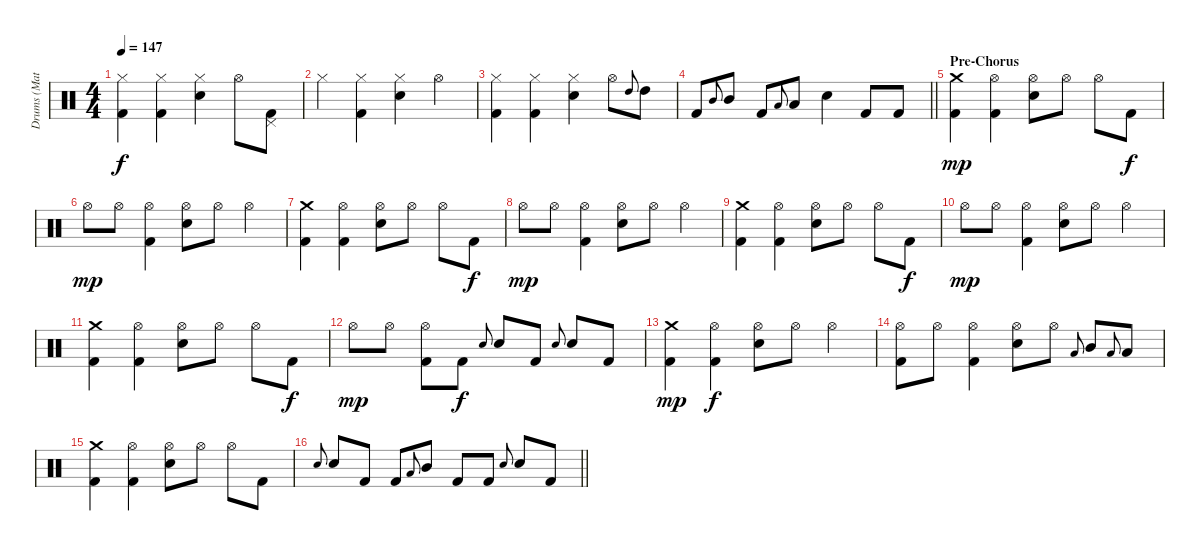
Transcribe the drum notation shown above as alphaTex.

\track ("Drums (Matt Laug)" "Drums (Mat") {instrument percussion}
\staff {score}
\articulation defaults
\ts (4 4)
\tempo 147
\clef neutral
\ks c
("Hi-Hat (closed)" "Kick (hit) 2").4{dy f} ("Hi-Hat (closed)" "Kick (hit) 2").4 ("Hi-Hat (closed)" "Electric Snare (hit)").4 "Hi-Hat (open)".8 ("Pedal Hi-Hat (hit)" "Kick (hit) 2").8 |
"Hi-Hat (closed)".4 ("Hi-Hat (closed)" "Kick (hit) 2").4 ("Hi-Hat (closed)" "Electric Snare (hit)").4 "Hi-Hat (open)".4 |
("Hi-Hat (closed)" "Kick (hit) 2").4 ("Hi-Hat (closed)" "Kick (hit) 2").4 ("Hi-Hat (closed)" "Electric Snare (hit)").4 "Hi-Hat (open)".8 "High Tom (hit)".8{gr onbeat} "High Tom (hit)".8 |
\barLineRight lightlight "Kick (hit) 2".8 "Mid Tom (hit)".8{gr onbeat} "Mid Tom (hit)".8 "Kick (hit) 2".8 "Low Tom (hit)".8{gr onbeat} "Low Tom (hit)".8 "Electric Snare (hit)".4 "Kick (hit) 2".8 "Kick (hit) 2".8
|
\section ("" "Pre-Chorus")
("Crash medium (hit)" "Kick (hit) 2").4{dy mp} ("Hi-Hat (open)" "Kick (hit) 2").4 ("Hi-Hat (open)" "Electric Snare (hit)").8 "Hi-Hat (open)".8 "Hi-Hat (open)".8 "Kick (hit) 2".8{dy f} |
"Hi-Hat (open)".8{dy mp} "Hi-Hat (open)".8 ("Hi-Hat (open)" "Kick (hit) 2").4 ("Hi-Hat (open)" "Electric Snare (hit)").8 "Hi-Hat (open)".8 "Hi-Hat (open)".4 |
("Crash medium (hit)" "Kick (hit) 2").4 ("Hi-Hat (open)" "Kick (hit) 2").4 ("Hi-Hat (open)" "Electric Snare (hit)").8 "Hi-Hat (open)".8 "Hi-Hat (open)".8 "Kick (hit) 2".8{dy f} |
"Hi-Hat (open)".8{dy mp} "Hi-Hat (open)".8 ("Hi-Hat (open)" "Kick (hit) 2").4 ("Hi-Hat (open)" "Electric Snare (hit)").8 "Hi-Hat (open)".8 "Hi-Hat (open)".4 |
("Crash medium (hit)" "Kick (hit) 2").4 ("Hi-Hat (open)" "Kick (hit) 2").4 ("Hi-Hat (open)" "Electric Snare (hit)").8 "Hi-Hat (open)".8 "Hi-Hat (open)".8 "Kick (hit) 2".8{dy f} |
"Hi-Hat (open)".8{dy mp} "Hi-Hat (open)".8 ("Hi-Hat (open)" "Kick (hit) 2").4 ("Hi-Hat (open)" "Electric Snare (hit)").8 "Hi-Hat (open)".8 "Hi-Hat (open)".4 |
("Crash medium (hit)" "Kick (hit) 2").4 ("Hi-Hat (open)" "Kick (hit) 2").4 ("Hi-Hat (open)" "Electric Snare (hit)").8 "Hi-Hat (open)".8 "Hi-Hat (open)".8 "Kick (hit) 2".8{dy f} |
"Hi-Hat (open)".8{dy mp} "Hi-Hat (open)".8 ("Hi-Hat (open)" "Kick (hit) 2").8 "Kick (hit) 2".8{dy f} "Electric Snare (hit)".8{gr onbeat} "Electric Snare (hit)".8 "Kick (hit) 2".8 "Electric Snare (hit)".8{gr onbeat} "Electric Snare (hit)".8 "Kick (hit) 2".8 |
("Crash medium (hit)" "Kick (hit) 2").4{dy mp} ("Hi-Hat (open)" "Kick (hit) 2").4{dy f} ("Hi-Hat (open)" "Electric Snare (hit)").8 "Hi-Hat (open)".8 "Hi-Hat (open)".4 |
("Hi-Hat (open)" "Kick (hit) 2").8 "Hi-Hat (open)".8 ("Hi-Hat (open)" "Kick (hit) 2").4 ("Hi-Hat (open)" "Electric Snare (hit)").8 "Hi-Hat (open)".8 "Low Tom (hit)".8{gr onbeat} "Mid Tom (hit)".8 "Low Tom (hit)".8{gr onbeat} "Low Tom (hit)".8 |
("Crash medium (hit)" "Kick (hit) 2").4 ("Hi-Hat (open)" "Kick (hit) 2").4 ("Hi-Hat (open)" "Electric Snare (hit)").8 "Hi-Hat (open)".8 "Hi-Hat (open)".8 "Kick (hit) 2".8 |
\barLineRight lightlight "Electric Snare (hit)".8{gr onbeat} "Electric Snare (hit)".8 "Kick (hit) 2".8 "Kick (hit) 2".8 "Low Tom (hit)".8{gr onbeat} "Mid Tom (hit)".8 "Kick (hit) 2".8 "Kick (hit) 2".8 "Electric Snare (hit)".8{gr onbeat} "Electric Snare (hit)".8 "Kick (hit) 2".8
